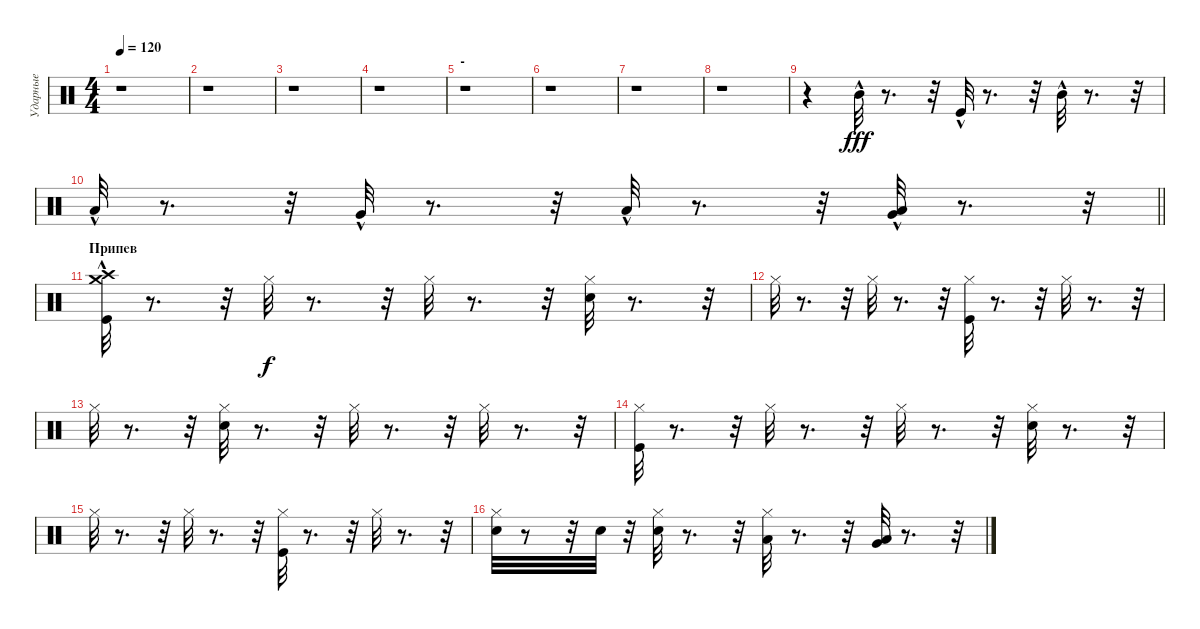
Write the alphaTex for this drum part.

\track ("Ударные" "Ударные") {instrument percussion}
\staff {score}
\articulation defaults
\ts (4 4)
\tempo 120
\clef neutral
\ks c
r.1{dy fff} |
r.1 |
r.1 |
r.1 |
\section ("" "-")
r.1 |
r.1 |
r.1 |
r.1 |
r.4 "Mid Tom (hit)"{hac}.32 r.8{d} r.32 "Kick (hit)"{hac}.32 r.8{d} r.32 "Mid Tom (hit)"{hac}.32 r.8{d} r.32 |
\barLineRight lightlight "Low Tom (hit)"{hac}.32
r.8{d} r.32 "Very Low Tom (hit)"{hac}.32 r.8{d} r.32 "Low Tom (hit)"{hac}.32 r.8{d} r.32 ("Low Floor Tom (hit)"{hac} "Very Low Tom (hit)"{hac}).32 r.8{d} r.32 |
\section ("" "Припев")
("Crash high (hit)"{hac} "Crash medium (hit)"{hac} "Kick (hit)"{hac}).32 r.8{d} r.32 "Hi-Hat (closed)".32{dy f} r.8{d} r.32 "Hi-Hat (closed)".32 r.8{d} r.32 ("Hi-Hat (closed)" "Snare (hit) 2").32 r.8{d} r.32 |
"Hi-Hat (closed)".32 r.8{d} r.32 "Hi-Hat (closed)".32 r.8{d} r.32 ("Hi-Hat (closed)" "Kick (hit)").32 r.8{d} r.32 "Hi-Hat (closed)".32 r.8{d} r.32 |
"Hi-Hat (closed)".32 r.8{d} r.32 ("Hi-Hat (closed)" "Snare (hit) 2").32 r.8{d} r.32 "Hi-Hat (closed)".32 r.8{d} r.32 "Hi-Hat (closed)".32 r.8{d} r.32 |
("Hi-Hat (closed)" "Kick (hit)").32 r.8{d} r.32 "Hi-Hat (closed)".32 r.8{d} r.32 "Hi-Hat (closed)".32 r.8{d} r.32 ("Snare (hit) 2" "Hi-Hat (closed)").32 r.8{d} r.32 |
"Hi-Hat (closed)".32 r.8{d} r.32 "Hi-Hat (closed)".32 r.8{d} r.32 ("Hi-Hat (closed)" "Kick (hit)").32 r.8{d} r.32 "Hi-Hat (closed)".32 r.8{d} r.32 |
("Snare (hit) 2" "Hi-Hat (closed)").32 r.8 r.32 "Snare (hit) 2".32 r.32 ("Snare (hit) 2" "Hi-Hat (closed)").32 r.8{d} r.32 ("Low Tom (hit)" "Hi-Hat (closed)").32 r.8{d} r.32 ("Very Low Tom (hit)" "Low Floor Tom (hit)").32 r.8{d} r.32
